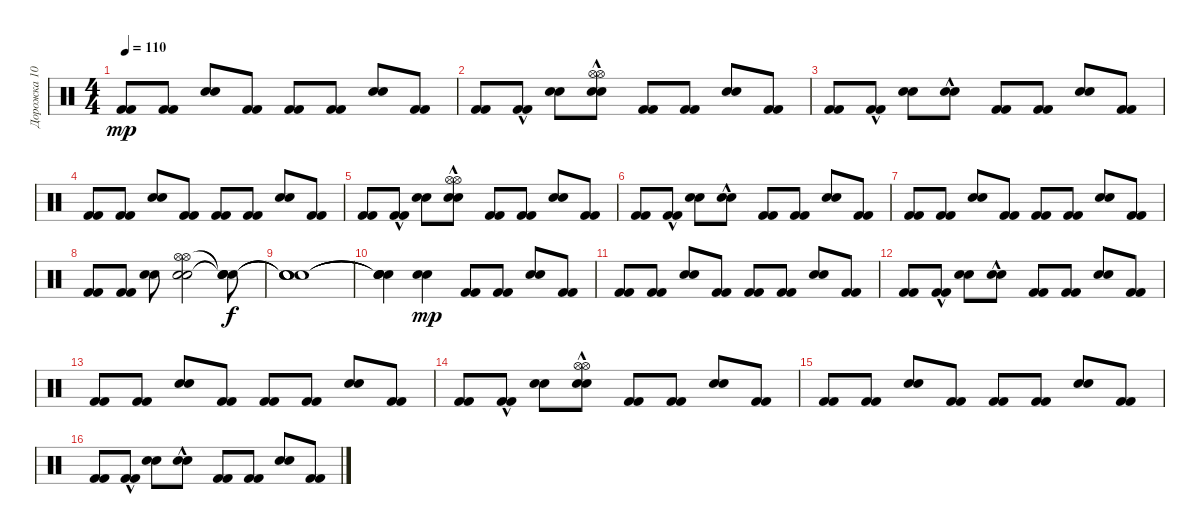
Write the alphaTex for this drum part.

\track ("Дорожка 10" "Дорожка 10") {instrument percussion}
\staff {score}
\articulation defaults
\ts (4 4)
\tempo 110
\clef neutral
\ks c
("Kick (hit) 2" "Kick (hit) 2").8{dy mp} ("Kick (hit) 2" "Kick (hit) 2").8 ("Snare (hit) 2" "Snare (hit) 2").8 ("Kick (hit) 2" "Kick (hit) 2").8 ("Kick (hit) 2" "Kick (hit) 2").8 ("Kick (hit) 2" "Kick (hit) 2").8 ("Snare (hit) 2" "Snare (hit) 2").8 ("Kick (hit) 2" "Kick (hit) 2").8 |
("Kick (hit) 2" "Kick (hit) 2").8 ("Kick (hit) 2"{hac} "Kick (hit) 2"{hac}).8 ("Snare (hit) 2" "Snare (hit) 2").8 ("Snare (hit) 2"{hac} "Hi-Hat (open)" "Snare (hit) 2"{hac} "Hi-Hat (open)").8 ("Kick (hit) 2" "Kick (hit) 2").8 ("Kick (hit) 2" "Kick (hit) 2").8 ("Snare (hit) 2" "Snare (hit) 2").8 ("Kick (hit) 2" "Kick (hit) 2").8 |
("Kick (hit) 2" "Kick (hit) 2").8 ("Kick (hit) 2"{hac} "Kick (hit) 2"{hac}).8 ("Snare (hit) 2" "Snare (hit) 2").8 ("Snare (hit) 2"{hac} "Snare (hit) 2"{hac}).8 ("Kick (hit) 2" "Kick (hit) 2").8 ("Kick (hit) 2" "Kick (hit) 2").8 ("Snare (hit) 2" "Snare (hit) 2").8 ("Kick (hit) 2" "Kick (hit) 2").8 |
("Kick (hit) 2" "Kick (hit) 2").8 ("Kick (hit) 2" "Kick (hit) 2").8 ("Snare (hit) 2" "Snare (hit) 2").8 ("Kick (hit) 2" "Kick (hit) 2").8 ("Kick (hit) 2" "Kick (hit) 2").8 ("Kick (hit) 2" "Kick (hit) 2").8 ("Snare (hit) 2" "Snare (hit) 2").8 ("Kick (hit) 2" "Kick (hit) 2").8 |
("Kick (hit) 2" "Kick (hit) 2").8 ("Kick (hit) 2"{hac} "Kick (hit) 2"{hac}).8 ("Snare (hit) 2" "Snare (hit) 2").8 ("Snare (hit) 2"{hac} "Hi-Hat (open)" "Snare (hit) 2"{hac} "Hi-Hat (open)").8 ("Kick (hit) 2" "Kick (hit) 2").8 ("Kick (hit) 2" "Kick (hit) 2").8 ("Snare (hit) 2" "Snare (hit) 2").8 ("Kick (hit) 2" "Kick (hit) 2").8 |
("Kick (hit) 2" "Kick (hit) 2").8 ("Kick (hit) 2"{hac} "Kick (hit) 2"{hac}).8 ("Snare (hit) 2" "Snare (hit) 2").8 ("Snare (hit) 2"{hac} "Snare (hit) 2"{hac}).8 ("Kick (hit) 2" "Kick (hit) 2").8 ("Kick (hit) 2" "Kick (hit) 2").8 ("Snare (hit) 2" "Snare (hit) 2").8 ("Kick (hit) 2" "Kick (hit) 2").8 |
("Kick (hit) 2" "Kick (hit) 2").8 ("Kick (hit) 2" "Kick (hit) 2").8 ("Snare (hit) 2" "Snare (hit) 2").8 ("Kick (hit) 2" "Kick (hit) 2").8 ("Kick (hit) 2" "Kick (hit) 2").8 ("Kick (hit) 2" "Kick (hit) 2").8 ("Snare (hit) 2" "Snare (hit) 2").8 ("Kick (hit) 2" "Kick (hit) 2").8 |
("Kick (hit) 2" "Kick (hit) 2").8 ("Kick (hit) 2" "Kick (hit) 2").8 ("Snare (hit) 2" "Snare (hit) 2").8 ("Snare (hit) 2" "Hi-Hat (open)" "Snare (hit) 2" "Hi-Hat (open)").2 ("Snare (hit)"{t} "Snare (hit)"{t} "Snare (hit)"{t} "Snare (hit)"{t}).8{dy f} |
("Snare (hit)"{t} "Snare (hit)"{t} "Snare (hit)"{t} "Snare (hit)"{t}).1 |
("Snare (hit)"{t} "Snare (hit)"{t} "Snare (hit)"{t} "Snare (hit)"{t}).4 ("Snare (hit) 2" "Snare (hit) 2").4{dy mp} ("Kick (hit) 2" "Kick (hit) 2").8 ("Kick (hit) 2" "Kick (hit) 2").8 ("Snare (hit) 2" "Snare (hit) 2").8 ("Kick (hit) 2" "Kick (hit) 2").8 |
("Kick (hit) 2" "Kick (hit) 2").8 ("Kick (hit) 2" "Kick (hit) 2").8 ("Snare (hit) 2" "Snare (hit) 2").8 ("Kick (hit) 2" "Kick (hit) 2").8 ("Kick (hit) 2" "Kick (hit) 2").8 ("Kick (hit) 2" "Kick (hit) 2").8 ("Snare (hit) 2" "Snare (hit) 2").8 ("Kick (hit) 2" "Kick (hit) 2").8 |
("Kick (hit) 2" "Kick (hit) 2").8 ("Kick (hit) 2"{hac} "Kick (hit) 2"{hac}).8 ("Snare (hit) 2" "Snare (hit) 2").8 ("Snare (hit) 2"{hac} "Snare (hit) 2"{hac}).8 ("Kick (hit) 2" "Kick (hit) 2").8 ("Kick (hit) 2" "Kick (hit) 2").8 ("Snare (hit) 2" "Snare (hit) 2").8 ("Kick (hit) 2" "Kick (hit) 2").8 |
("Kick (hit) 2" "Kick (hit) 2").8 ("Kick (hit) 2" "Kick (hit) 2").8 ("Snare (hit) 2" "Snare (hit) 2").8 ("Kick (hit) 2" "Kick (hit) 2").8 ("Kick (hit) 2" "Kick (hit) 2").8 ("Kick (hit) 2" "Kick (hit) 2").8 ("Snare (hit) 2" "Snare (hit) 2").8 ("Kick (hit) 2" "Kick (hit) 2").8 |
("Kick (hit) 2" "Kick (hit) 2").8 ("Kick (hit) 2"{hac} "Kick (hit) 2"{hac}).8 ("Snare (hit) 2" "Snare (hit) 2").8 ("Snare (hit) 2"{hac} "Hi-Hat (open)" "Snare (hit) 2"{hac} "Hi-Hat (open)").8 ("Kick (hit) 2" "Kick (hit) 2").8 ("Kick (hit) 2" "Kick (hit) 2").8 ("Snare (hit) 2" "Snare (hit) 2").8 ("Kick (hit) 2" "Kick (hit) 2").8 |
("Kick (hit) 2" "Kick (hit) 2").8 ("Kick (hit) 2" "Kick (hit) 2").8 ("Snare (hit) 2" "Snare (hit) 2").8 ("Kick (hit) 2" "Kick (hit) 2").8 ("Kick (hit) 2" "Kick (hit) 2").8 ("Kick (hit) 2" "Kick (hit) 2").8 ("Snare (hit) 2" "Snare (hit) 2").8 ("Kick (hit) 2" "Kick (hit) 2").8 |
("Kick (hit) 2" "Kick (hit) 2").8 ("Kick (hit) 2"{hac} "Kick (hit) 2"{hac}).8 ("Snare (hit) 2" "Snare (hit) 2").8 ("Snare (hit) 2"{hac} "Snare (hit) 2"{hac}).8 ("Kick (hit) 2" "Kick (hit) 2").8 ("Kick (hit) 2" "Kick (hit) 2").8 ("Snare (hit) 2" "Snare (hit) 2").8 ("Kick (hit) 2" "Kick (hit) 2").8
